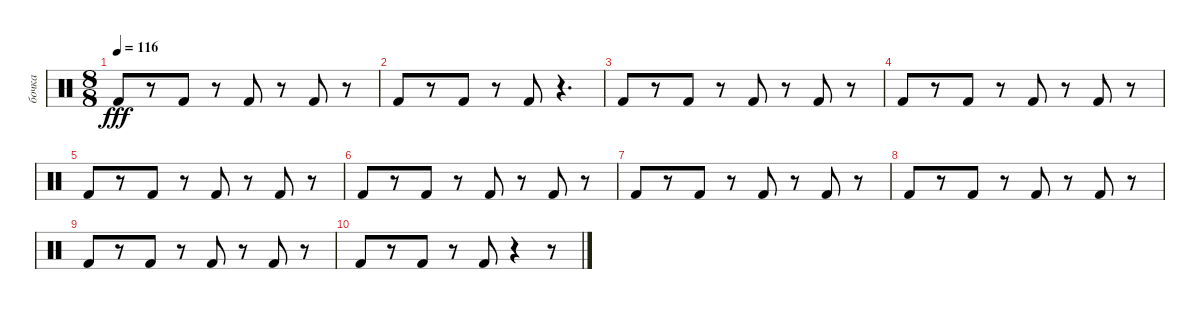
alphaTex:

\track ("бочка" "бочка") {instrument percussion}
\staff {score}
\articulation defaults
\ts (8 8)
\tempo 116
\clef neutral
\ks c "Kick (hit) 2".8{dy fff}
r.8 "Kick (hit) 2".8 r.8 "Kick (hit) 2".8 r.8 "Kick (hit) 2".8 r.8 |
"Kick (hit) 2".8 r.8 "Kick (hit) 2".8 r.8 "Kick (hit) 2".8 r.4{d} |
"Kick (hit) 2".8 r.8 "Kick (hit) 2".8 r.8 "Kick (hit) 2".8 r.8 "Kick (hit) 2".8 r.8 |
"Kick (hit) 2".8 r.8 "Kick (hit) 2".8 r.8 "Kick (hit) 2".8 r.8 "Kick (hit) 2".8 r.8 |
"Kick (hit) 2".8 r.8 "Kick (hit) 2".8 r.8 "Kick (hit) 2".8 r.8 "Kick (hit) 2".8 r.8 |
"Kick (hit) 2".8 r.8 "Kick (hit) 2".8 r.8 "Kick (hit) 2".8 r.8 "Kick (hit) 2".8 r.8 |
"Kick (hit) 2".8 r.8 "Kick (hit) 2".8 r.8 "Kick (hit) 2".8 r.8 "Kick (hit) 2".8 r.8 |
"Kick (hit) 2".8 r.8 "Kick (hit) 2".8 r.8 "Kick (hit) 2".8 r.8 "Kick (hit) 2".8 r.8 |
"Kick (hit) 2".8 r.8 "Kick (hit) 2".8 r.8 "Kick (hit) 2".8 r.8 "Kick (hit) 2".8 r.8 |
"Kick (hit) 2".8 r.8 "Kick (hit) 2".8 r.8 "Kick (hit) 2".8 r.4 r.8
